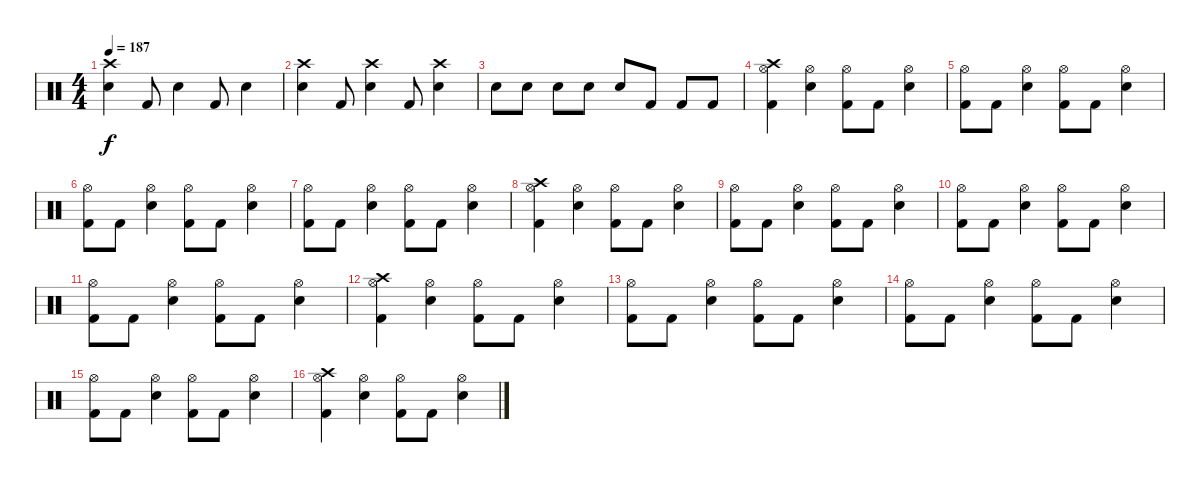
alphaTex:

\track "" {instrument percussion}
\staff {score}
\articulation defaults
\ts (4 4)
\tempo 187
\clef neutral
\ks c
("Crash high (hit)" "Electric Snare (hit)").4{dy f} "Kick (hit) 2".8 "Electric Snare (hit)".4 "Kick (hit) 2".8 "Electric Snare (hit)".4 |
("Crash high (hit)" "Electric Snare (hit)").4 "Kick (hit) 2".8 ("Crash high (hit)" "Electric Snare (hit)").4 "Kick (hit) 2".8 ("Crash high (hit)" "Electric Snare (hit)").4 |
"Electric Snare (hit)".8 "Electric Snare (hit)".8 "Electric Snare (hit)".8 "Electric Snare (hit)".8 "Electric Snare (hit)".8 "Kick (hit) 2".8 "Kick (hit) 2".8 "Kick (hit) 2".8 |
("Hi-Hat (open)" "Crash high (hit)" "Kick (hit) 2").4 ("Hi-Hat (open)" "Electric Snare (hit)").4 ("Hi-Hat (open)" "Kick (hit) 2").8 "Kick (hit) 2".8 ("Hi-Hat (open)" "Electric Snare (hit)").4 |
("Hi-Hat (open)" "Kick (hit) 2").8 "Kick (hit) 2".8 ("Hi-Hat (open)" "Electric Snare (hit)").4 ("Hi-Hat (open)" "Kick (hit) 2").8 "Kick (hit) 2".8 ("Hi-Hat (open)" "Electric Snare (hit)").4 |
("Hi-Hat (open)" "Kick (hit) 2").8 "Kick (hit) 2".8 ("Hi-Hat (open)" "Electric Snare (hit)").4 ("Hi-Hat (open)" "Kick (hit) 2").8 "Kick (hit) 2".8 ("Hi-Hat (open)" "Electric Snare (hit)").4 |
("Hi-Hat (open)" "Kick (hit) 2").8 "Kick (hit) 2".8 ("Hi-Hat (open)" "Electric Snare (hit)").4 ("Hi-Hat (open)" "Kick (hit) 2").8 "Kick (hit) 2".8 ("Hi-Hat (open)" "Electric Snare (hit)").4 |
("Hi-Hat (open)" "Crash high (hit)" "Kick (hit) 2").4 ("Hi-Hat (open)" "Electric Snare (hit)").4 ("Hi-Hat (open)" "Kick (hit) 2").8 "Kick (hit) 2".8 ("Hi-Hat (open)" "Electric Snare (hit)").4 |
("Hi-Hat (open)" "Kick (hit) 2").8 "Kick (hit) 2".8 ("Hi-Hat (open)" "Electric Snare (hit)").4 ("Hi-Hat (open)" "Kick (hit) 2").8 "Kick (hit) 2".8 ("Hi-Hat (open)" "Electric Snare (hit)").4 |
("Hi-Hat (open)" "Kick (hit) 2").8 "Kick (hit) 2".8 ("Hi-Hat (open)" "Electric Snare (hit)").4 ("Hi-Hat (open)" "Kick (hit) 2").8 "Kick (hit) 2".8 ("Hi-Hat (open)" "Electric Snare (hit)").4 |
("Hi-Hat (open)" "Kick (hit) 2").8 "Kick (hit) 2".8 ("Hi-Hat (open)" "Electric Snare (hit)").4 ("Hi-Hat (open)" "Kick (hit) 2").8 "Kick (hit) 2".8 ("Hi-Hat (open)" "Electric Snare (hit)").4 |
("Hi-Hat (open)" "Crash high (hit)" "Kick (hit) 2").4 ("Hi-Hat (open)" "Electric Snare (hit)").4 ("Hi-Hat (open)" "Kick (hit) 2").8 "Kick (hit) 2".8 ("Hi-Hat (open)" "Electric Snare (hit)").4 |
("Hi-Hat (open)" "Kick (hit) 2").8 "Kick (hit) 2".8 ("Hi-Hat (open)" "Electric Snare (hit)").4 ("Hi-Hat (open)" "Kick (hit) 2").8 "Kick (hit) 2".8 ("Hi-Hat (open)" "Electric Snare (hit)").4 |
("Hi-Hat (open)" "Kick (hit) 2").8 "Kick (hit) 2".8 ("Hi-Hat (open)" "Electric Snare (hit)").4 ("Hi-Hat (open)" "Kick (hit) 2").8 "Kick (hit) 2".8 ("Hi-Hat (open)" "Electric Snare (hit)").4 |
("Hi-Hat (open)" "Kick (hit) 2").8 "Kick (hit) 2".8 ("Hi-Hat (open)" "Electric Snare (hit)").4 ("Hi-Hat (open)" "Kick (hit) 2").8 "Kick (hit) 2".8 ("Hi-Hat (open)" "Electric Snare (hit)").4 |
("Hi-Hat (open)" "Crash high (hit)" "Kick (hit) 2").4 ("Hi-Hat (open)" "Electric Snare (hit)").4 ("Hi-Hat (open)" "Kick (hit) 2").8 "Kick (hit) 2".8 ("Hi-Hat (open)" "Electric Snare (hit)").4
